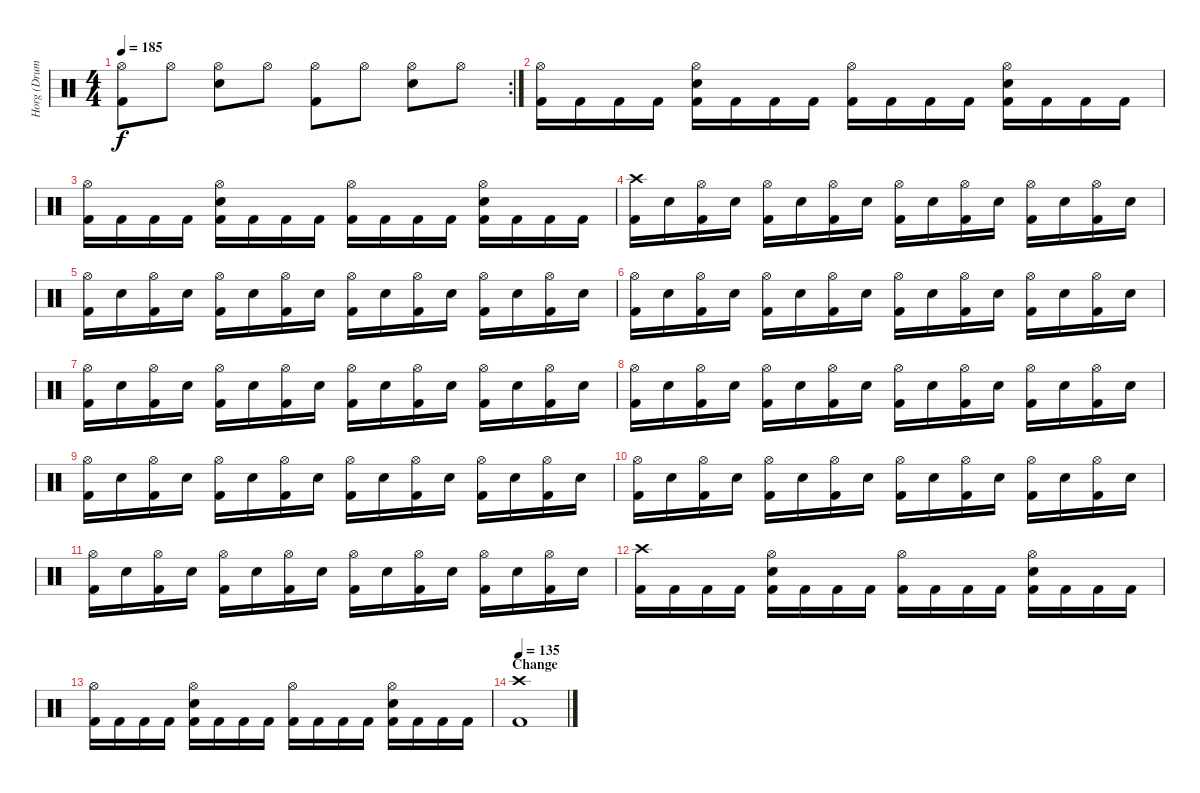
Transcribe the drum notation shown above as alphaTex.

\track ("Horg (Drums)" "Horg (Drum") {instrument percussion}
\staff {score}
\articulation defaults
\rc 2
\ts (4 4)
\tempo 185
\clef neutral
\ks c
("Hi-Hat (open)" "Kick (hit) 2").8{dy f} "Hi-Hat (open)".8 ("Hi-Hat (open)" "Electric Snare (hit)").8 "Hi-Hat (open)".8 ("Hi-Hat (open)" "Kick (hit) 2").8 "Hi-Hat (open)".8 ("Hi-Hat (open)" "Electric Snare (hit)").8 "Hi-Hat (open)".8 |
("Hi-Hat (open)" "Kick (hit) 2").16 "Kick (hit) 2".16 "Kick (hit) 2".16 "Kick (hit) 2".16 ("Hi-Hat (open)" "Electric Snare (hit)" "Kick (hit) 2").16 "Kick (hit) 2".16 "Kick (hit) 2".16 "Kick (hit) 2".16 ("Hi-Hat (open)" "Kick (hit) 2").16 "Kick (hit) 2".16 "Kick (hit) 2".16 "Kick (hit) 2".16 ("Hi-Hat (open)" "Electric Snare (hit)" "Kick (hit) 2").16 "Kick (hit) 2".16 "Kick (hit) 2".16 "Kick (hit) 2".16 |
("Hi-Hat (open)" "Kick (hit) 2").16 "Kick (hit) 2".16 "Kick (hit) 2".16 "Kick (hit) 2".16 ("Hi-Hat (open)" "Electric Snare (hit)" "Kick (hit) 2").16 "Kick (hit) 2".16 "Kick (hit) 2".16 "Kick (hit) 2".16 ("Hi-Hat (open)" "Kick (hit) 2").16 "Kick (hit) 2".16 "Kick (hit) 2".16 "Kick (hit) 2".16 ("Hi-Hat (open)" "Electric Snare (hit)" "Kick (hit) 2").16 "Kick (hit) 2".16 "Kick (hit) 2".16 "Kick (hit) 2".16 |
("Crash high (hit)" "Kick (hit) 2").16 "Electric Snare (hit)".16 ("Hi-Hat (open)" "Kick (hit) 2").16 "Electric Snare (hit)".16 ("Hi-Hat (open)" "Kick (hit) 2").16 "Electric Snare (hit)".16 ("Hi-Hat (open)" "Kick (hit) 2").16 "Electric Snare (hit)".16 ("Hi-Hat (open)" "Kick (hit) 2").16 "Electric Snare (hit)".16 ("Hi-Hat (open)" "Kick (hit) 2").16 "Electric Snare (hit)".16 ("Hi-Hat (open)" "Kick (hit) 2").16 "Electric Snare (hit)".16 ("Hi-Hat (open)" "Kick (hit) 2").16 "Electric Snare (hit)".16 |
("Hi-Hat (open)" "Kick (hit) 2").16 "Electric Snare (hit)".16 ("Hi-Hat (open)" "Kick (hit) 2").16 "Electric Snare (hit)".16 ("Hi-Hat (open)" "Kick (hit) 2").16 "Electric Snare (hit)".16 ("Hi-Hat (open)" "Kick (hit) 2").16 "Electric Snare (hit)".16 ("Hi-Hat (open)" "Kick (hit) 2").16 "Electric Snare (hit)".16 ("Hi-Hat (open)" "Kick (hit) 2").16 "Electric Snare (hit)".16 ("Hi-Hat (open)" "Kick (hit) 2").16 "Electric Snare (hit)".16 ("Hi-Hat (open)" "Kick (hit) 2").16 "Electric Snare (hit)".16 |
("Hi-Hat (open)" "Kick (hit) 2").16 "Electric Snare (hit)".16 ("Hi-Hat (open)" "Kick (hit) 2").16 "Electric Snare (hit)".16 ("Hi-Hat (open)" "Kick (hit) 2").16 "Electric Snare (hit)".16 ("Hi-Hat (open)" "Kick (hit) 2").16 "Electric Snare (hit)".16 ("Hi-Hat (open)" "Kick (hit) 2").16 "Electric Snare (hit)".16 ("Hi-Hat (open)" "Kick (hit) 2").16 "Electric Snare (hit)".16 ("Hi-Hat (open)" "Kick (hit) 2").16 "Electric Snare (hit)".16 ("Hi-Hat (open)" "Kick (hit) 2").16 "Electric Snare (hit)".16 |
("Hi-Hat (open)" "Kick (hit) 2").16 "Electric Snare (hit)".16 ("Hi-Hat (open)" "Kick (hit) 2").16 "Electric Snare (hit)".16 ("Hi-Hat (open)" "Kick (hit) 2").16 "Electric Snare (hit)".16 ("Hi-Hat (open)" "Kick (hit) 2").16 "Electric Snare (hit)".16 ("Hi-Hat (open)" "Kick (hit) 2").16 "Electric Snare (hit)".16 ("Hi-Hat (open)" "Kick (hit) 2").16 "Electric Snare (hit)".16 ("Hi-Hat (open)" "Kick (hit) 2").16 "Electric Snare (hit)".16 ("Hi-Hat (open)" "Kick (hit) 2").16 "Electric Snare (hit)".16 |
("Hi-Hat (open)" "Kick (hit) 2").16 "Electric Snare (hit)".16 ("Hi-Hat (open)" "Kick (hit) 2").16 "Electric Snare (hit)".16 ("Hi-Hat (open)" "Kick (hit) 2").16 "Electric Snare (hit)".16 ("Hi-Hat (open)" "Kick (hit) 2").16 "Electric Snare (hit)".16 ("Hi-Hat (open)" "Kick (hit) 2").16 "Electric Snare (hit)".16 ("Hi-Hat (open)" "Kick (hit) 2").16 "Electric Snare (hit)".16 ("Hi-Hat (open)" "Kick (hit) 2").16 "Electric Snare (hit)".16 ("Hi-Hat (open)" "Kick (hit) 2").16 "Electric Snare (hit)".16 |
("Hi-Hat (open)" "Kick (hit) 2").16 "Electric Snare (hit)".16 ("Hi-Hat (open)" "Kick (hit) 2").16 "Electric Snare (hit)".16 ("Hi-Hat (open)" "Kick (hit) 2").16 "Electric Snare (hit)".16 ("Hi-Hat (open)" "Kick (hit) 2").16 "Electric Snare (hit)".16 ("Hi-Hat (open)" "Kick (hit) 2").16 "Electric Snare (hit)".16 ("Hi-Hat (open)" "Kick (hit) 2").16 "Electric Snare (hit)".16 ("Hi-Hat (open)" "Kick (hit) 2").16 "Electric Snare (hit)".16 ("Hi-Hat (open)" "Kick (hit) 2").16 "Electric Snare (hit)".16 |
("Hi-Hat (open)" "Kick (hit) 2").16 "Electric Snare (hit)".16 ("Hi-Hat (open)" "Kick (hit) 2").16 "Electric Snare (hit)".16 ("Hi-Hat (open)" "Kick (hit) 2").16 "Electric Snare (hit)".16 ("Hi-Hat (open)" "Kick (hit) 2").16 "Electric Snare (hit)".16 ("Hi-Hat (open)" "Kick (hit) 2").16 "Electric Snare (hit)".16 ("Hi-Hat (open)" "Kick (hit) 2").16 "Electric Snare (hit)".16 ("Hi-Hat (open)" "Kick (hit) 2").16 "Electric Snare (hit)".16 ("Hi-Hat (open)" "Kick (hit) 2").16 "Electric Snare (hit)".16 |
("Hi-Hat (open)" "Kick (hit) 2").16 "Electric Snare (hit)".16 ("Hi-Hat (open)" "Kick (hit) 2").16 "Electric Snare (hit)".16 ("Hi-Hat (open)" "Kick (hit) 2").16 "Electric Snare (hit)".16 ("Hi-Hat (open)" "Kick (hit) 2").16 "Electric Snare (hit)".16 ("Hi-Hat (open)" "Kick (hit) 2").16 "Electric Snare (hit)".16 ("Hi-Hat (open)" "Kick (hit) 2").16 "Electric Snare (hit)".16 ("Hi-Hat (open)" "Kick (hit) 2").16 "Electric Snare (hit)".16 ("Hi-Hat (open)" "Kick (hit) 2").16 "Electric Snare (hit)".16 |
("Crash high (hit)" "Kick (hit) 2").16 "Kick (hit) 2".16 "Kick (hit) 2".16 "Kick (hit) 2".16 ("Hi-Hat (open)" "Electric Snare (hit)" "Kick (hit) 2").16 "Kick (hit) 2".16 "Kick (hit) 2".16 "Kick (hit) 2".16 ("Hi-Hat (open)" "Kick (hit) 2").16 "Kick (hit) 2".16 "Kick (hit) 2".16 "Kick (hit) 2".16 ("Hi-Hat (open)" "Electric Snare (hit)" "Kick (hit) 2").16 "Kick (hit) 2".16 "Kick (hit) 2".16 "Kick (hit) 2".16 |
("Hi-Hat (open)" "Kick (hit) 2").16 "Kick (hit) 2".16 "Kick (hit) 2".16 "Kick (hit) 2".16 ("Hi-Hat (open)" "Electric Snare (hit)" "Kick (hit) 2").16 "Kick (hit) 2".16 "Kick (hit) 2".16 "Kick (hit) 2".16 ("Hi-Hat (open)" "Kick (hit) 2").16 "Kick (hit) 2".16 "Kick (hit) 2".16 "Kick (hit) 2".16 ("Hi-Hat (open)" "Electric Snare (hit)" "Kick (hit) 2").16 "Kick (hit) 2".16 "Kick (hit) 2".16 "Kick (hit) 2".16 |
\section ("" "Change ")
\tempo 135
("Crash high (hit)" "Kick (hit) 2").1
